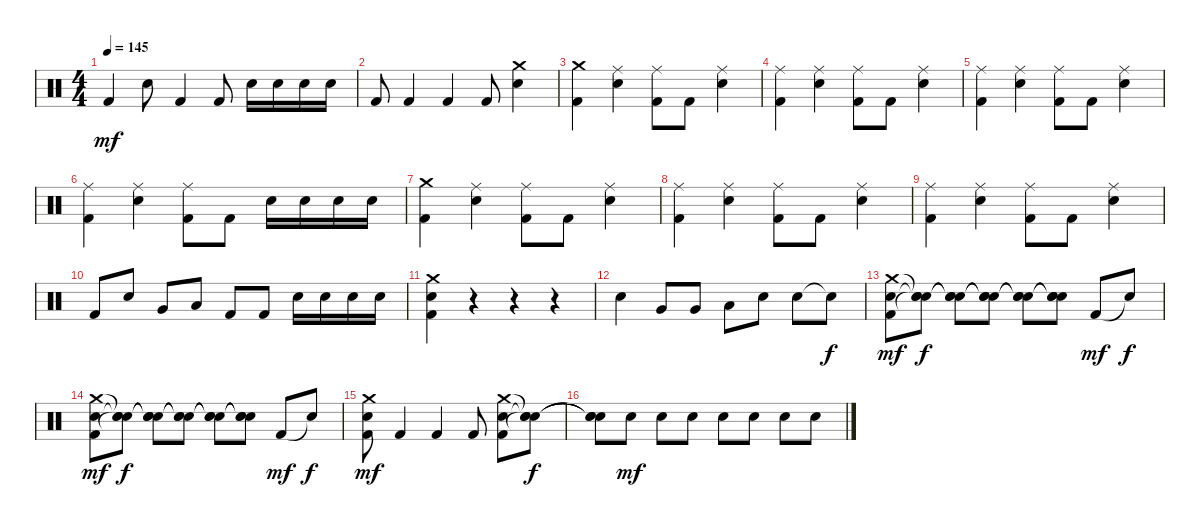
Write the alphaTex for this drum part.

\track "" {instrument percussion}
\staff {score}
\articulation defaults
\ts (4 4)
\tempo 145
\clef neutral
\ks c "Kick (hit) 2".4{dy mf} "Snare (hit) 2".8 "Kick (hit) 2".4 "Kick (hit) 2".8 "Snare (hit) 2".16 "Snare (hit) 2".16 "Snare (hit) 2".16 "Snare (hit) 2".16
|
"Kick (hit) 2".8 "Kick (hit) 2".4 "Kick (hit) 2".4 "Kick (hit) 2".8 ("Crash medium (hit)" "Snare (hit) 2").4 |
("Crash medium (hit)" "Kick (hit) 2").4 ("Ride (middle)" "Snare (hit) 2").4 ("Ride (middle)" "Kick (hit) 2").8 "Kick (hit) 2".8 ("Ride (middle)" "Snare (hit) 2").4 |
("Ride (middle)" "Kick (hit) 2").4 ("Ride (middle)" "Snare (hit) 2").4 ("Ride (middle)" "Kick (hit) 2").8 "Kick (hit) 2".8 ("Ride (middle)" "Snare (hit) 2").4 |
("Ride (middle)" "Kick (hit) 2").4 ("Ride (middle)" "Snare (hit) 2").4 ("Ride (middle)" "Kick (hit) 2").8 "Kick (hit) 2".8 ("Ride (middle)" "Snare (hit) 2").4 |
("Ride (middle)" "Kick (hit) 2").4 ("Ride (middle)" "Snare (hit) 2").4 ("Ride (middle)" "Kick (hit) 2").8 "Kick (hit) 2".8 "Snare (hit) 2".16 "Snare (hit) 2".16 "Snare (hit) 2".16 "Snare (hit) 2".16 |
("Crash medium (hit)" "Kick (hit) 2").4 ("Ride (middle)" "Snare (hit) 2").4 ("Ride (middle)" "Kick (hit) 2").8 "Kick (hit) 2".8 ("Ride (middle)" "Snare (hit) 2").4 |
("Ride (middle)" "Kick (hit) 2").4 ("Ride (middle)" "Snare (hit) 2").4 ("Ride (middle)" "Kick (hit) 2").8 "Kick (hit) 2".8 ("Ride (middle)" "Snare (hit) 2").4 |
("Ride (middle)" "Kick (hit) 2").4 ("Ride (middle)" "Snare (hit) 2").4 ("Ride (middle)" "Kick (hit) 2").8 "Kick (hit) 2".8 ("Ride (middle)" "Snare (hit) 2").4 |
"Kick (hit) 2".8 "Snare (hit) 2".8 "Very Low Tom (hit)".8 "Low Floor Tom (hit)".8 "Kick (hit) 2".8 "Kick (hit) 2".8 "Snare (hit) 2".16 "Snare (hit) 2".16 "Snare (hit) 2".16 "Snare (hit) 2".16 |
("Crash medium (hit)" "Snare (hit) 2" "Kick (hit) 2").4 r.4 r.4 r.4 |
"Snare (hit) 2".4 "Very Low Tom (hit)".8 "Very Low Tom (hit)".8 "Low Floor Tom (hit)".8 "Snare (hit) 2".8 "Snare (hit) 2".8 "Snare (hit)"{t}.8{dy f} |
("Crash medium (hit)" "Snare (hit) 2" "Kick (hit) 2").8{dy mf} ("Snare (hit)"{t} "Snare (hit)"{t} "Snare (hit)"{t}).8{dy f} ("Snare (hit)"{t} "Snare (hit)"{t} "Snare (hit)"{t}).8 ("Snare (hit)"{t} "Snare (hit)"{t} "Snare (hit)"{t}).8 ("Snare (hit)"{t} "Snare (hit)"{t} "Snare (hit)"{t}).8 ("Snare (hit)"{t} "Snare (hit)"{t} "Snare (hit)"{t}).8 "Kick (hit) 2".8{dy mf} "Snare (hit)"{t}.8{dy f} |
("Crash medium (hit)" "Snare (hit) 2" "Kick (hit) 2").8{dy mf} ("Snare (hit)"{t} "Snare (hit)"{t} "Snare (hit)"{t}).8{dy f} ("Snare (hit)"{t} "Snare (hit)"{t} "Snare (hit)"{t}).8 ("Snare (hit)"{t} "Snare (hit)"{t} "Snare (hit)"{t}).8 ("Snare (hit)"{t} "Snare (hit)"{t} "Snare (hit)"{t}).8 ("Snare (hit)"{t} "Snare (hit)"{t} "Snare (hit)"{t}).8 "Kick (hit) 2".8{dy mf} "Snare (hit)"{t}.8{dy f} |
("Crash medium (hit)" "Snare (hit) 2" "Kick (hit) 2").8{dy mf} "Kick (hit) 2".4 "Kick (hit) 2".4 "Kick (hit) 2".8 ("Crash medium (hit)" "Snare (hit) 2" "Kick (hit) 2").8 ("Snare (hit)"{t} "Snare (hit)"{t} "Snare (hit)"{t}).8{dy f} |
("Snare (hit)"{t} "Snare (hit)"{t} "Snare (hit)"{t}).8 "Snare (hit) 2".8{dy mf} "Snare (hit) 2".8 "Snare (hit) 2".8 "Snare (hit) 2".8 "Snare (hit) 2".8 "Snare (hit) 2".8 "Snare (hit) 2".8
